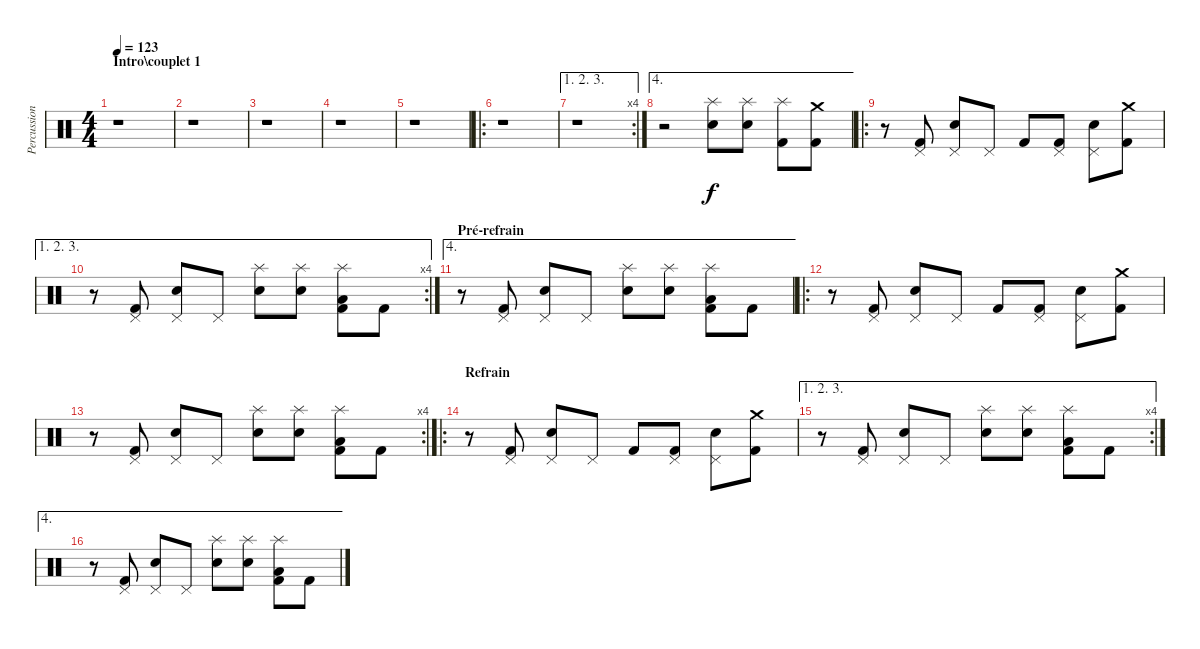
\track ("Percussions" "Percussion") {instrument percussion}
\staff {score}
\articulation defaults
\ts (4 4)
\section ("" "Intro\\couplet 1")
\tempo 123
\clef neutral
\ks c
r.1{dy f} |
r.1 |
r.1 |
r.1 |
r.1 |
\ro
r.1 |
\ae (1 2 3)
\rc 4
r.1 |
\ae 4
r.2 ("Splash (hit)" "Electric Snare (hit)").8 ("Splash (hit)" "Electric Snare (hit)").8 ("Splash (hit)" "Kick (hit) 2").8 ("Crash medium (hit)" "Kick (hit) 2").8 |
\ro
r.8 ("Pedal Hi-Hat (hit)" "Kick (hit) 2").8 ("Pedal Hi-Hat (hit)" "Electric Snare (hit)").8 "Pedal Hi-Hat (hit)".8 "Kick (hit) 2".8 ("Pedal Hi-Hat (hit)" "Kick (hit) 2").8 ("Pedal Hi-Hat (hit)" "Electric Snare (hit)").8 ("Crash medium (hit)" "Kick (hit) 2").8 |
\ae (1 2 3)
\rc 4
r.8 ("Pedal Hi-Hat (hit)" "Kick (hit) 2").8 ("Pedal Hi-Hat (hit)" "Electric Snare (hit)").8 "Pedal Hi-Hat (hit)".8 ("Splash (hit)" "Electric Snare (hit)").8 ("Splash (hit)" "Electric Snare (hit)").8 ("Splash (hit)" "Low Tom (hit)" "Kick (hit) 2").8 "Kick (hit) 2".8 |
\ae 4
\section ("" "Pré-refrain")
r.8 ("Pedal Hi-Hat (hit)" "Kick (hit) 2").8 ("Pedal Hi-Hat (hit)" "Electric Snare (hit)").8 "Pedal Hi-Hat (hit)".8 ("Splash (hit)" "Electric Snare (hit)").8 ("Splash (hit)" "Electric Snare (hit)").8 ("Splash (hit)" "Low Tom (hit)" "Kick (hit) 2").8 "Kick (hit) 2".8 |
\ro
r.8 ("Pedal Hi-Hat (hit)" "Kick (hit) 2").8 ("Pedal Hi-Hat (hit)" "Electric Snare (hit)").8 "Pedal Hi-Hat (hit)".8 "Kick (hit) 2".8 ("Pedal Hi-Hat (hit)" "Kick (hit) 2").8 ("Pedal Hi-Hat (hit)" "Electric Snare (hit)").8 ("Crash medium (hit)" "Kick (hit) 2").8 |
\rc 4
r.8 ("Pedal Hi-Hat (hit)" "Kick (hit) 2").8 ("Pedal Hi-Hat (hit)" "Electric Snare (hit)").8 "Pedal Hi-Hat (hit)".8 ("Splash (hit)" "Electric Snare (hit)").8 ("Splash (hit)" "Electric Snare (hit)").8 ("Splash (hit)" "Low Tom (hit)" "Kick (hit) 2").8 "Kick (hit) 2".8 |
\ro
\section ("" "Refrain")
r.8 ("Pedal Hi-Hat (hit)" "Kick (hit) 2").8 ("Pedal Hi-Hat (hit)" "Electric Snare (hit)").8 "Pedal Hi-Hat (hit)".8 "Kick (hit) 2".8 ("Pedal Hi-Hat (hit)" "Kick (hit) 2").8 ("Pedal Hi-Hat (hit)" "Electric Snare (hit)").8 ("Crash medium (hit)" "Kick (hit) 2").8 |
\ae (1 2 3)
\rc 4
r.8 ("Pedal Hi-Hat (hit)" "Kick (hit) 2").8 ("Pedal Hi-Hat (hit)" "Electric Snare (hit)").8 "Pedal Hi-Hat (hit)".8 ("Splash (hit)" "Electric Snare (hit)").8 ("Splash (hit)" "Electric Snare (hit)").8 ("Splash (hit)" "Low Tom (hit)" "Kick (hit) 2").8 "Kick (hit) 2".8 |
\ae 4
r.8 ("Pedal Hi-Hat (hit)" "Kick (hit) 2").8 ("Pedal Hi-Hat (hit)" "Electric Snare (hit)").8 "Pedal Hi-Hat (hit)".8 ("Splash (hit)" "Electric Snare (hit)").8 ("Splash (hit)" "Electric Snare (hit)").8 ("Splash (hit)" "Low Tom (hit)" "Kick (hit) 2").8 "Kick (hit) 2".8
